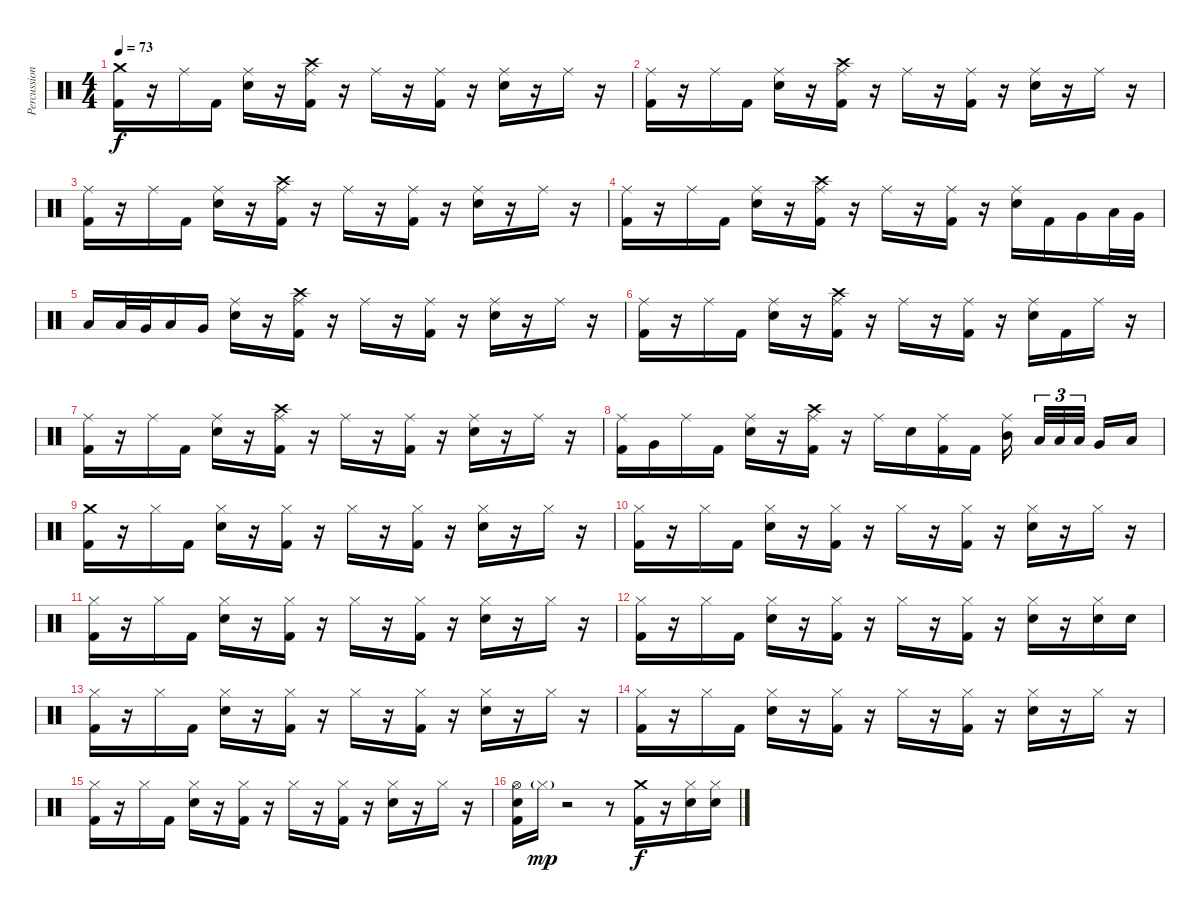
\track ("Percussion" "Percussion") {instrument percussion}
\staff {score}
\articulation defaults
\ts (4 4)
\tempo 73
\clef neutral
\ks c
("Crash medium (hit)" "Kick (hit) 2").16{dy f} r.16 "Ride (middle)".16 "Kick (hit) 2".16 ("Ride (middle)" "Electric Snare (hit)").16 r.16 ("Ride (middle)" "Crash high (hit)" "Kick (hit) 2").16 r.16 "Ride (middle)".16 r.16 ("Ride (middle)" "Kick (hit) 2").16 r.16 ("Ride (middle)" "Electric Snare (hit)").16 r.16 "Ride (middle)".16 r.16 |
("Ride (middle)" "Kick (hit) 2").16 r.16 "Ride (middle)".16 "Kick (hit) 2".16 ("Ride (middle)" "Electric Snare (hit)").16 r.16 ("Ride (middle)" "Crash high (hit)" "Kick (hit) 2").16 r.16 "Ride (middle)".16 r.16 ("Ride (middle)" "Kick (hit) 2").16 r.16 ("Ride (middle)" "Electric Snare (hit)").16 r.16 "Ride (middle)".16 r.16 |
("Ride (middle)" "Kick (hit) 2").16 r.16 "Ride (middle)".16 "Kick (hit) 2".16 ("Ride (middle)" "Electric Snare (hit)").16 r.16 ("Ride (middle)" "Crash high (hit)" "Kick (hit) 2").16 r.16 "Ride (middle)".16 r.16 ("Ride (middle)" "Kick (hit) 2").16 r.16 ("Ride (middle)" "Electric Snare (hit)").16 r.16 "Ride (middle)".16 r.16 |
("Ride (middle)" "Kick (hit) 2").16 r.16 "Ride (middle)".16 "Kick (hit) 2".16 ("Ride (middle)" "Electric Snare (hit)").16 r.16 ("Ride (middle)" "Crash high (hit)" "Kick (hit) 2").16 r.16 "Ride (middle)".16 r.16 ("Ride (middle)" "Kick (hit) 2").16 r.16 ("Ride (middle)" "Electric Snare (hit)").16 "Kick (hit) 2".16 "Very Low Tom (hit)".16 "Low Floor Tom (hit)".32 "Very Low Tom (hit)".32 |
"Low Floor Tom (hit)".16 "Low Floor Tom (hit)".32 "Very Low Tom (hit)".32 "Low Floor Tom (hit)".16 "Very Low Tom (hit)".16 ("Ride (middle)" "Electric Snare (hit)").16 r.16 ("Ride (middle)" "Crash high (hit)" "Kick (hit) 2").16 r.16 "Ride (middle)".16 r.16 ("Ride (middle)" "Kick (hit) 2").16 r.16 ("Ride (middle)" "Electric Snare (hit)").16 r.16 "Ride (middle)".16 r.16 |
("Ride (middle)" "Kick (hit) 2").16 r.16 "Ride (middle)".16 "Kick (hit) 2".16 ("Ride (middle)" "Electric Snare (hit)").16 r.16 ("Ride (middle)" "Crash high (hit)" "Kick (hit) 2").16 r.16 "Ride (middle)".16 r.16 ("Ride (middle)" "Kick (hit) 2").16 r.16 ("Ride (middle)" "Electric Snare (hit)").16 "Kick (hit) 2".16 "Ride (middle)".16 r.16 |
("Ride (middle)" "Kick (hit) 2").16 r.16 "Ride (middle)".16 "Kick (hit) 2".16 ("Ride (middle)" "Electric Snare (hit)").16 r.16 ("Ride (middle)" "Crash high (hit)" "Kick (hit) 2").16 r.16 "Ride (middle)".16 r.16 ("Ride (middle)" "Kick (hit) 2").16 r.16 ("Ride (middle)" "Electric Snare (hit)").16 r.16 "Ride (middle)".16 r.16 |
("Ride (middle)" "Kick (hit) 2").16 "Very Low Tom (hit)".16 "Ride (middle)".16 "Kick (hit) 2".16 ("Ride (middle)" "Electric Snare (hit)").16 r.16 ("Ride (middle)" "Crash high (hit)" "Kick (hit) 2").16 r.16 "Ride (middle)".16 "Electric Snare (hit)".16 ("Ride (middle)" "Kick (hit) 2").16 "Kick (hit) 2".16 ("Ride (middle)" "Mid Tom (hit)").16 "Low Tom (hit)".32{tu (3 2)} "Low Tom (hit)".32{tu (3 2)} "Low Tom (hit)".32{tu (3 2)} "Very Low Tom (hit)".16 "Low Floor Tom (hit)".16 |
("Crash medium (hit)" "Kick (hit) 2").16 r.16 "Hi-Hat (closed)".16 "Kick (hit) 2".16 ("Hi-Hat (closed)" "Electric Snare (hit)").16 r.16 ("Hi-Hat (closed)" "Kick (hit) 2").16 r.16 "Hi-Hat (closed)".16 r.16 ("Hi-Hat (closed)" "Kick (hit) 2").16 r.16 ("Hi-Hat (closed)" "Electric Snare (hit)").16 r.16 "Hi-Hat (closed)".16 r.16 |
("Hi-Hat (closed)" "Kick (hit) 2").16 r.16 "Hi-Hat (closed)".16 "Kick (hit) 2".16 ("Hi-Hat (closed)" "Electric Snare (hit)").16 r.16 ("Hi-Hat (closed)" "Kick (hit) 2").16 r.16 "Hi-Hat (closed)".16 r.16 ("Hi-Hat (closed)" "Kick (hit) 2").16 r.16 ("Hi-Hat (closed)" "Electric Snare (hit)").16 r.16 "Hi-Hat (closed)".16 r.16 |
("Hi-Hat (closed)" "Kick (hit) 2").16 r.16 "Hi-Hat (closed)".16 "Kick (hit) 2".16 ("Hi-Hat (closed)" "Electric Snare (hit)").16 r.16 ("Hi-Hat (closed)" "Kick (hit) 2").16 r.16 "Hi-Hat (closed)".16 r.16 ("Hi-Hat (closed)" "Kick (hit) 2").16 r.16 ("Hi-Hat (closed)" "Electric Snare (hit)").16 r.16 "Hi-Hat (closed)".16 r.16 |
("Hi-Hat (closed)" "Kick (hit) 2").16 r.16 "Hi-Hat (closed)".16 "Kick (hit) 2".16 ("Hi-Hat (closed)" "Electric Snare (hit)").16 r.16 ("Hi-Hat (closed)" "Kick (hit) 2").16 r.16 "Hi-Hat (closed)".16 r.16 ("Hi-Hat (closed)" "Kick (hit) 2").16 r.16 ("Hi-Hat (closed)" "Electric Snare (hit)").16 r.16 ("Hi-Hat (closed)" "Electric Snare (hit)").16 "Electric Snare (hit)".16 |
("Hi-Hat (closed)" "Kick (hit) 2").16 r.16 "Hi-Hat (closed)".16 "Kick (hit) 2".16 ("Hi-Hat (closed)" "Electric Snare (hit)").16 r.16 ("Hi-Hat (closed)" "Kick (hit) 2").16 r.16 "Hi-Hat (closed)".16 r.16 ("Hi-Hat (closed)" "Kick (hit) 2").16 r.16 ("Hi-Hat (closed)" "Electric Snare (hit)").16 r.16 "Hi-Hat (closed)".16 r.16 |
("Hi-Hat (closed)" "Kick (hit) 2").16 r.16 "Hi-Hat (closed)".16 "Kick (hit) 2".16 ("Hi-Hat (closed)" "Electric Snare (hit)").16 r.16 ("Hi-Hat (closed)" "Kick (hit) 2").16 r.16 "Hi-Hat (closed)".16 r.16 ("Hi-Hat (closed)" "Kick (hit) 2").16 r.16 ("Hi-Hat (closed)" "Electric Snare (hit)").16 r.16 "Hi-Hat (closed)".16 r.16 |
("Hi-Hat (closed)" "Kick (hit) 2").16 r.16 "Hi-Hat (closed)".16 "Kick (hit) 2".16 ("Hi-Hat (closed)" "Electric Snare (hit)").16 r.16 ("Hi-Hat (closed)" "Kick (hit) 2").16 r.16 "Hi-Hat (closed)".16 r.16 ("Hi-Hat (closed)" "Kick (hit) 2").16 r.16 ("Hi-Hat (closed)" "Electric Snare (hit)").16 r.16 "Hi-Hat (closed)".16 r.16 |
("Hi-Hat (open)" "Electric Snare (hit)" "Kick (hit) 2").16 "Hi-Hat (closed)"{g}.16{dy mp} r.2 r.8 ("Crash medium (hit)" "Kick (hit) 2").16{dy f} r.16 ("Hi-Hat (closed)" "Electric Snare (hit)").16 ("Hi-Hat (closed)" "Electric Snare (hit)").16
